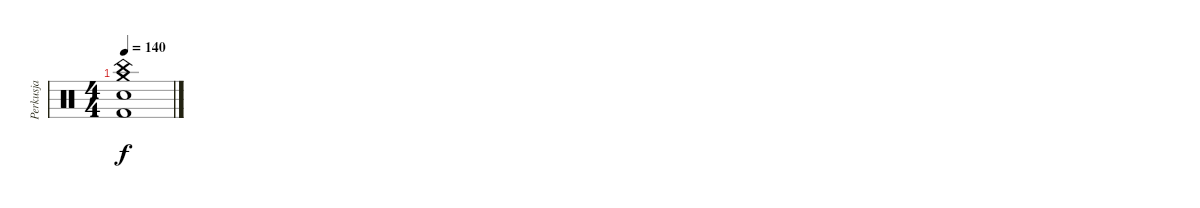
\track ("Perkusja" "Perkusja") {instrument percussion}
\staff {score}
\articulation defaults
\ts (4 4)
\tempo 140
\clef neutral
\ks c
("China (hit)" "Crash medium (hit)" "Kick (hit) 2" "Snare (hit) 2").1{dy f}
